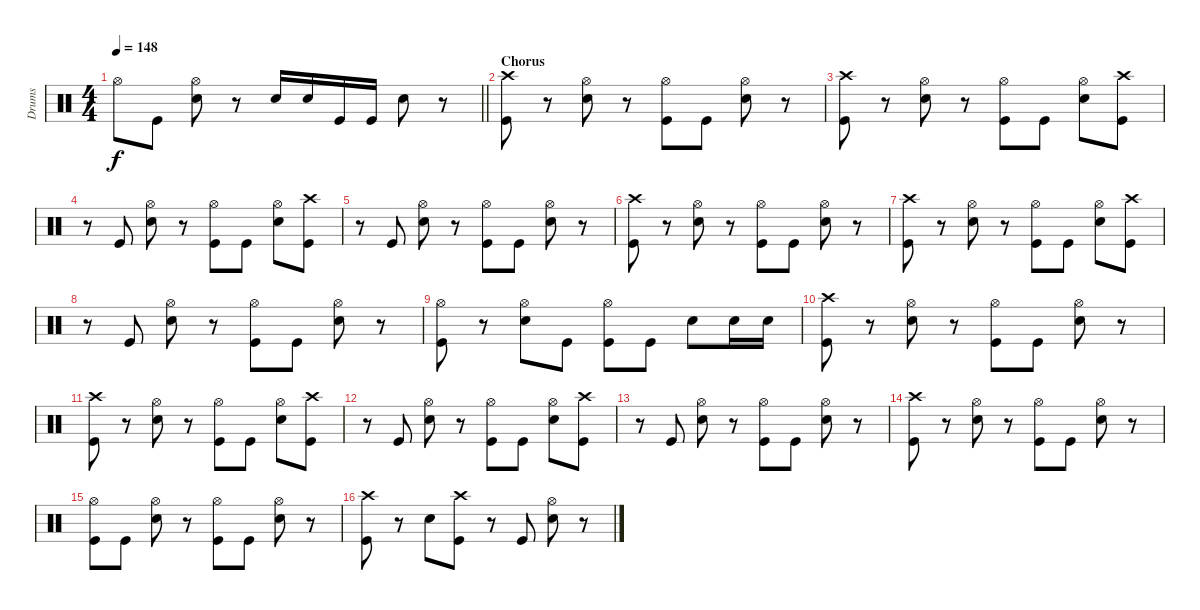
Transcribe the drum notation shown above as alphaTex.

\track ("Drums" "Drums") {instrument percussion}
\staff {score}
\articulation defaults
\ts (4 4)
\tempo 148
\clef neutral
\barLineRight lightlight
\ks c "Hi-Hat (open)".8{dy f} "Kick (hit)".8
("Hi-Hat (open)" "Snare (hit) 2").8 r.8 "Snare (hit) 2".16 "Snare (hit) 2".16 "Kick (hit)".16 "Kick (hit)".16 "Snare (hit) 2".8 r.8 |
\section ("" "Chorus")
("Kick (hit)" "Crash high (hit)").8 r.8 ("Hi-Hat (open)" "Snare (hit) 2").8 r.8 ("Hi-Hat (open)" "Kick (hit)").8 "Kick (hit)".8 ("Hi-Hat (open)" "Snare (hit) 2").8 r.8 |
("Kick (hit)" "Crash high (hit)").8 r.8 ("Snare (hit) 2" "Hi-Hat (open)").8 r.8 ("Hi-Hat (open)" "Kick (hit)").8 "Kick (hit)".8 ("Hi-Hat (open)" "Snare (hit) 2").8 ("Kick (hit)" "Crash high (hit)").8 |
r.8 "Kick (hit)".8 ("Hi-Hat (open)" "Snare (hit) 2").8 r.8 ("Hi-Hat (open)" "Kick (hit)").8 "Kick (hit)".8 ("Hi-Hat (open)" "Snare (hit) 2").8 ("Kick (hit)" "Crash high (hit)").8 |
r.8 "Kick (hit)".8 ("Snare (hit) 2" "Hi-Hat (open)").8 r.8 ("Kick (hit)" "Hi-Hat (open)").8 "Kick (hit)".8 ("Snare (hit) 2" "Hi-Hat (open)").8 r.8 |
("Kick (hit)" "Crash high (hit)").8 r.8 ("Snare (hit) 2" "Hi-Hat (open)").8 r.8 ("Kick (hit)" "Hi-Hat (open)").8 "Kick (hit)".8 ("Snare (hit) 2" "Hi-Hat (open)").8 r.8 |
("Kick (hit)" "Crash high (hit)").8 r.8 ("Snare (hit) 2" "Hi-Hat (open)").8 r.8 ("Hi-Hat (open)" "Kick (hit)").8 "Kick (hit)".8 ("Hi-Hat (open)" "Snare (hit) 2").8 ("Kick (hit)" "Crash high (hit)").8 |
r.8 "Kick (hit)".8 ("Hi-Hat (open)" "Snare (hit) 2").8 r.8 ("Hi-Hat (open)" "Kick (hit)").8 "Kick (hit)".8 ("Hi-Hat (open)" "Snare (hit) 2").8 r.8 |
("Kick (hit)" "Hi-Hat (open)").8 r.8 ("Snare (hit) 2" "Hi-Hat (open)").8 "Kick (hit)".8 ("Kick (hit)" "Hi-Hat (open)").8 "Kick (hit)".8 "Snare (hit) 2".8 "Snare (hit) 2".16 "Snare (hit) 2".16 |
("Kick (hit)" "Crash high (hit)").8 r.8 ("Hi-Hat (open)" "Snare (hit) 2").8 r.8 ("Hi-Hat (open)" "Kick (hit)").8 "Kick (hit)".8 ("Hi-Hat (open)" "Snare (hit) 2").8 r.8 |
("Kick (hit)" "Crash high (hit)").8 r.8 ("Snare (hit) 2" "Hi-Hat (open)").8 r.8 ("Hi-Hat (open)" "Kick (hit)").8 "Kick (hit)".8 ("Hi-Hat (open)" "Snare (hit) 2").8 ("Kick (hit)" "Crash high (hit)").8 |
r.8 "Kick (hit)".8 ("Hi-Hat (open)" "Snare (hit) 2").8 r.8 ("Hi-Hat (open)" "Kick (hit)").8 "Kick (hit)".8 ("Hi-Hat (open)" "Snare (hit) 2").8 ("Kick (hit)" "Crash high (hit)").8 |
r.8 "Kick (hit)".8 ("Snare (hit) 2" "Hi-Hat (open)").8 r.8 ("Kick (hit)" "Hi-Hat (open)").8 "Kick (hit)".8 ("Snare (hit) 2" "Hi-Hat (open)").8 r.8 |
("Kick (hit)" "Crash high (hit)").8 r.8 ("Snare (hit) 2" "Hi-Hat (open)").8 r.8 ("Kick (hit)" "Hi-Hat (open)").8 "Kick (hit)".8 ("Snare (hit) 2" "Hi-Hat (open)").8 r.8 |
("Hi-Hat (open)" "Kick (hit)").8 "Kick (hit)".8 ("Hi-Hat (open)" "Snare (hit) 2").8 r.8 ("Hi-Hat (open)" "Kick (hit)").8 "Kick (hit)".8 ("Hi-Hat (open)" "Snare (hit) 2").8 r.8 |
("Kick (hit)" "Crash high (hit)").8 r.8 "Snare (hit) 2".8 ("Kick (hit)" "Crash high (hit)").8 r.8 "Kick (hit)".8 ("Hi-Hat (open)" "Snare (hit) 2").8 r.8
